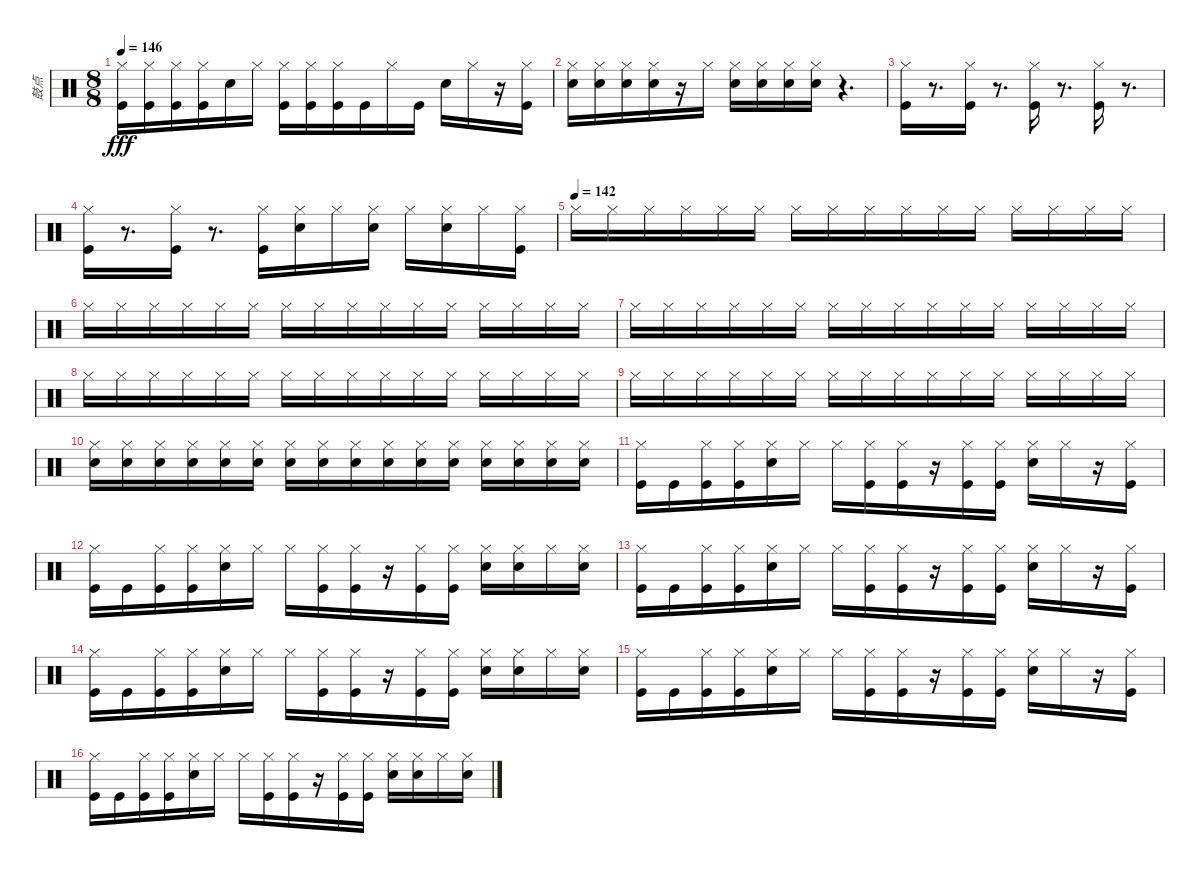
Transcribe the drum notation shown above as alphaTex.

\track ("鼓点" "鼓点") {instrument percussion}
\staff {score}
\articulation defaults
\ts (8 8)
\tempo 146
\clef neutral
\ks c
("Kick (hit)" "Hi-Hat (closed)").16{dy fff} ("Kick (hit)" "Hi-Hat (closed)").16 ("Kick (hit)" "Hi-Hat (closed)").16 ("Kick (hit)" "Hi-Hat (closed)").16 "Snare (hit) 2".16 "Hi-Hat (closed)".16 ("Kick (hit)" "Hi-Hat (closed)").16 ("Kick (hit)" "Hi-Hat (closed)").16 ("Kick (hit)" "Hi-Hat (closed)").16 "Kick (hit)".16 "Hi-Hat (closed)".16 "Kick (hit)".16 "Snare (hit) 2".16 "Hi-Hat (closed)".16 r.16 ("Kick (hit)" "Hi-Hat (closed)").16 |
("Snare (hit) 2" "Hi-Hat (closed)").16 ("Snare (hit) 2" "Hi-Hat (closed)").16 ("Snare (hit) 2" "Hi-Hat (closed)").16 ("Snare (hit) 2" "Hi-Hat (closed)").16 r.16 "Hi-Hat (closed)".16 ("Snare (hit) 2" "Hi-Hat (closed)").16 ("Snare (hit) 2" "Hi-Hat (closed)").16 ("Snare (hit) 2" "Hi-Hat (closed)").16 ("Snare (hit) 2" "Hi-Hat (closed)").16 r.4{d} |
("Kick (hit)" "Hi-Hat (closed)").16 r.8{d} ("Kick (hit)" "Hi-Hat (closed)").16 r.8{d} ("Kick (hit)" "Hi-Hat (closed)").16 r.8{d} ("Kick (hit)" "Hi-Hat (closed)").16 r.8{d} |
("Kick (hit)" "Hi-Hat (closed)").16 r.8{d} ("Kick (hit)" "Hi-Hat (closed)").16 r.8{d} ("Kick (hit)" "Hi-Hat (closed)").16 ("Snare (hit) 2" "Hi-Hat (closed)").16 "Hi-Hat (closed)".16 ("Snare (hit) 2" "Hi-Hat (closed)").16 "Hi-Hat (closed)".16 ("Snare (hit) 2" "Hi-Hat (closed)").16 "Hi-Hat (closed)".16 ("Kick (hit)" "Hi-Hat (closed)").16 |
\tempo (142)
"Hi-Hat (closed)".16 "Hi-Hat (closed)".16 "Hi-Hat (closed)".16 "Hi-Hat (closed)".16 "Hi-Hat (closed)".16 "Hi-Hat (closed)".16 "Hi-Hat (closed)".16 "Hi-Hat (closed)".16 "Hi-Hat (closed)".16 "Hi-Hat (closed)".16 "Hi-Hat (closed)".16 "Hi-Hat (closed)".16 "Hi-Hat (closed)".16 "Hi-Hat (closed)".16 "Hi-Hat (closed)".16 "Hi-Hat (closed)".16 |
"Hi-Hat (closed)".16 "Hi-Hat (closed)".16 "Hi-Hat (closed)".16 "Hi-Hat (closed)".16 "Hi-Hat (closed)".16 "Hi-Hat (closed)".16 "Hi-Hat (closed)".16 "Hi-Hat (closed)".16 "Hi-Hat (closed)".16 "Hi-Hat (closed)".16 "Hi-Hat (closed)".16 "Hi-Hat (closed)".16 "Hi-Hat (closed)".16 "Hi-Hat (closed)".16 "Hi-Hat (closed)".16 "Hi-Hat (closed)".16 |
"Hi-Hat (closed)".16 "Hi-Hat (closed)".16 "Hi-Hat (closed)".16 "Hi-Hat (closed)".16 "Hi-Hat (closed)".16 "Hi-Hat (closed)".16 "Hi-Hat (closed)".16 "Hi-Hat (closed)".16 "Hi-Hat (closed)".16 "Hi-Hat (closed)".16 "Hi-Hat (closed)".16 "Hi-Hat (closed)".16 "Hi-Hat (closed)".16 "Hi-Hat (closed)".16 "Hi-Hat (closed)".16 "Hi-Hat (closed)".16 |
"Hi-Hat (closed)".16 "Hi-Hat (closed)".16 "Hi-Hat (closed)".16 "Hi-Hat (closed)".16 "Hi-Hat (closed)".16 "Hi-Hat (closed)".16 "Hi-Hat (closed)".16 "Hi-Hat (closed)".16 "Hi-Hat (closed)".16 "Hi-Hat (closed)".16 "Hi-Hat (closed)".16 "Hi-Hat (closed)".16 "Hi-Hat (closed)".16 "Hi-Hat (closed)".16 "Hi-Hat (closed)".16 "Hi-Hat (closed)".16 |
"Hi-Hat (closed)".16 "Hi-Hat (closed)".16 "Hi-Hat (closed)".16 "Hi-Hat (closed)".16 "Hi-Hat (closed)".16 "Hi-Hat (closed)".16 "Hi-Hat (closed)".16 "Hi-Hat (closed)".16 "Hi-Hat (closed)".16 "Hi-Hat (closed)".16 "Hi-Hat (closed)".16 "Hi-Hat (closed)".16 "Hi-Hat (closed)".16 "Hi-Hat (closed)".16 "Hi-Hat (closed)".16 "Hi-Hat (closed)".16 |
("Snare (hit) 2" "Hi-Hat (closed)").16 ("Snare (hit) 2" "Hi-Hat (closed)").16 ("Snare (hit) 2" "Hi-Hat (closed)").16 ("Snare (hit) 2" "Hi-Hat (closed)").16 ("Snare (hit) 2" "Hi-Hat (closed)").16 ("Snare (hit) 2" "Hi-Hat (closed)").16 ("Snare (hit) 2" "Hi-Hat (closed)").16 ("Snare (hit) 2" "Hi-Hat (closed)").16 ("Snare (hit) 2" "Hi-Hat (closed)").16 ("Snare (hit) 2" "Hi-Hat (closed)").16 ("Snare (hit) 2" "Hi-Hat (closed)").16 ("Snare (hit) 2" "Hi-Hat (closed)").16 ("Snare (hit) 2" "Hi-Hat (closed)").16 ("Snare (hit) 2" "Hi-Hat (closed)").16 ("Snare (hit) 2" "Hi-Hat (closed)").16 ("Snare (hit) 2" "Hi-Hat (closed)").16 |
("Kick (hit)" "Hi-Hat (closed)").16 "Kick (hit)".16 ("Kick (hit)" "Hi-Hat (closed)").16 ("Kick (hit)" "Hi-Hat (closed)").16 ("Snare (hit) 2" "Hi-Hat (closed)").16 "Hi-Hat (closed)".16 "Hi-Hat (closed)".16 ("Kick (hit)" "Hi-Hat (closed)").16 ("Kick (hit)" "Hi-Hat (closed)").16 r.16 ("Kick (hit)" "Hi-Hat (closed)").16 ("Kick (hit)" "Hi-Hat (closed)").16 ("Snare (hit) 2" "Hi-Hat (closed)").16 "Hi-Hat (closed)".16 r.16 ("Kick (hit)" "Hi-Hat (closed)").16 |
("Kick (hit)" "Hi-Hat (closed)").16 "Kick (hit)".16 ("Kick (hit)" "Hi-Hat (closed)").16 ("Kick (hit)" "Hi-Hat (closed)").16 ("Snare (hit) 2" "Hi-Hat (closed)").16 "Hi-Hat (closed)".16 "Hi-Hat (closed)".16 ("Kick (hit)" "Hi-Hat (closed)").16 ("Kick (hit)" "Hi-Hat (closed)").16 r.16 ("Kick (hit)" "Hi-Hat (closed)").16 ("Kick (hit)" "Hi-Hat (closed)").16 ("Snare (hit) 2" "Hi-Hat (closed)").16 ("Snare (hit) 2" "Hi-Hat (closed)").16 "Hi-Hat (closed)".16 ("Snare (hit) 2" "Hi-Hat (closed)").16 |
("Kick (hit)" "Hi-Hat (closed)").16 "Kick (hit)".16 ("Kick (hit)" "Hi-Hat (closed)").16 ("Kick (hit)" "Hi-Hat (closed)").16 ("Snare (hit) 2" "Hi-Hat (closed)").16 "Hi-Hat (closed)".16 "Hi-Hat (closed)".16 ("Kick (hit)" "Hi-Hat (closed)").16 ("Kick (hit)" "Hi-Hat (closed)").16 r.16 ("Kick (hit)" "Hi-Hat (closed)").16 ("Kick (hit)" "Hi-Hat (closed)").16 ("Snare (hit) 2" "Hi-Hat (closed)").16 "Hi-Hat (closed)".16 r.16 ("Kick (hit)" "Hi-Hat (closed)").16 |
("Kick (hit)" "Hi-Hat (closed)").16 "Kick (hit)".16 ("Kick (hit)" "Hi-Hat (closed)").16 ("Kick (hit)" "Hi-Hat (closed)").16 ("Snare (hit) 2" "Hi-Hat (closed)").16 "Hi-Hat (closed)".16 "Hi-Hat (closed)".16 ("Kick (hit)" "Hi-Hat (closed)").16 ("Kick (hit)" "Hi-Hat (closed)").16 r.16 ("Kick (hit)" "Hi-Hat (closed)").16 ("Kick (hit)" "Hi-Hat (closed)").16 ("Snare (hit) 2" "Hi-Hat (closed)").16 ("Snare (hit) 2" "Hi-Hat (closed)").16 "Hi-Hat (closed)".16 ("Snare (hit) 2" "Hi-Hat (closed)").16 |
("Kick (hit)" "Hi-Hat (closed)").16 "Kick (hit)".16 ("Kick (hit)" "Hi-Hat (closed)").16 ("Kick (hit)" "Hi-Hat (closed)").16 ("Snare (hit) 2" "Hi-Hat (closed)").16 "Hi-Hat (closed)".16 "Hi-Hat (closed)".16 ("Kick (hit)" "Hi-Hat (closed)").16 ("Kick (hit)" "Hi-Hat (closed)").16 r.16 ("Kick (hit)" "Hi-Hat (closed)").16 ("Kick (hit)" "Hi-Hat (closed)").16 ("Snare (hit) 2" "Hi-Hat (closed)").16 "Hi-Hat (closed)".16 r.16 ("Kick (hit)" "Hi-Hat (closed)").16 |
("Kick (hit)" "Hi-Hat (closed)").16 "Kick (hit)".16 ("Kick (hit)" "Hi-Hat (closed)").16 ("Kick (hit)" "Hi-Hat (closed)").16 ("Snare (hit) 2" "Hi-Hat (closed)").16 "Hi-Hat (closed)".16 "Hi-Hat (closed)".16 ("Kick (hit)" "Hi-Hat (closed)").16 ("Kick (hit)" "Hi-Hat (closed)").16 r.16 ("Kick (hit)" "Hi-Hat (closed)").16 ("Kick (hit)" "Hi-Hat (closed)").16 ("Snare (hit) 2" "Hi-Hat (closed)").16 ("Snare (hit) 2" "Hi-Hat (closed)").16 "Hi-Hat (closed)".16 ("Snare (hit) 2" "Hi-Hat (closed)").16
